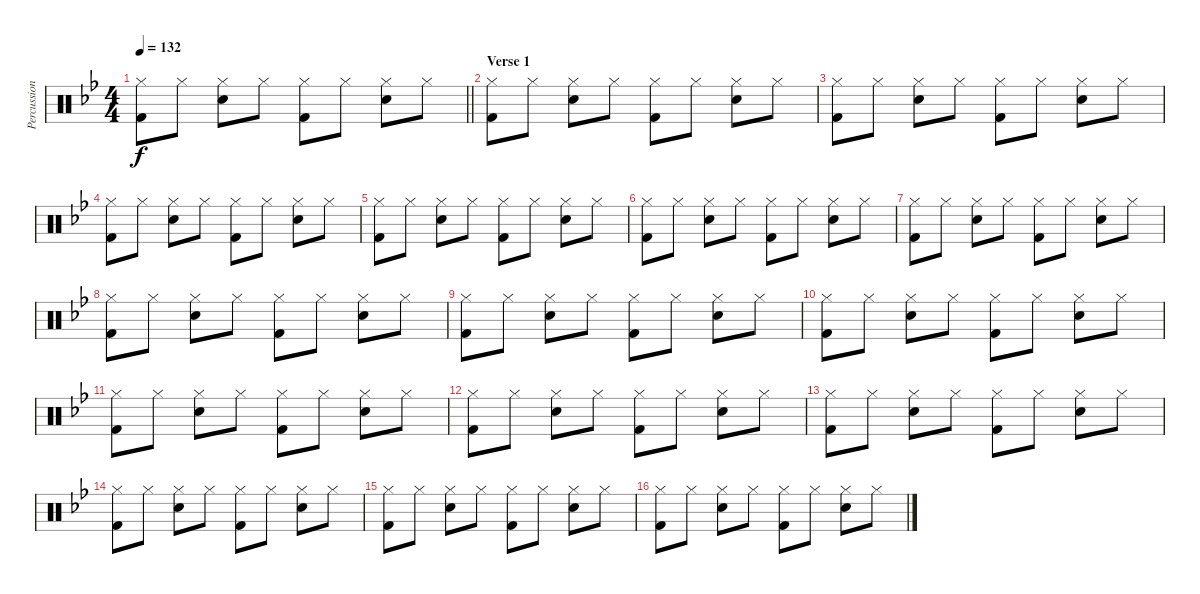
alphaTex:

\track ("Percussion" "Percussion") {instrument percussion}
\staff {score}
\articulation defaults
\ts (4 4)
\tempo 132
\clef neutral
\barLineRight lightlight
\ks bb
("Hi-Hat (closed)" "Kick (hit) 2").8{dy f} "Hi-Hat (closed)".8 ("Hi-Hat (closed)" "Snare (hit) 2").8 "Hi-Hat (closed)".8 ("Hi-Hat (closed)" "Kick (hit) 2").8 "Hi-Hat (closed)".8 ("Hi-Hat (closed)" "Snare (hit) 2").8 "Hi-Hat (closed)".8 |
\section ("" "Verse 1")
("Hi-Hat (closed)" "Kick (hit) 2").8 "Hi-Hat (closed)".8 ("Hi-Hat (closed)" "Snare (hit) 2").8 "Hi-Hat (closed)".8 ("Hi-Hat (closed)" "Kick (hit) 2").8 "Hi-Hat (closed)".8 ("Hi-Hat (closed)" "Snare (hit) 2").8 "Hi-Hat (closed)".8 |
("Hi-Hat (closed)" "Kick (hit) 2").8 "Hi-Hat (closed)".8 ("Hi-Hat (closed)" "Snare (hit) 2").8 "Hi-Hat (closed)".8 ("Hi-Hat (closed)" "Kick (hit) 2").8 "Hi-Hat (closed)".8 ("Hi-Hat (closed)" "Snare (hit) 2").8 "Hi-Hat (closed)".8 |
("Hi-Hat (closed)" "Kick (hit) 2").8 "Hi-Hat (closed)".8 ("Hi-Hat (closed)" "Snare (hit) 2").8 "Hi-Hat (closed)".8 ("Hi-Hat (closed)" "Kick (hit) 2").8 "Hi-Hat (closed)".8 ("Hi-Hat (closed)" "Snare (hit) 2").8 "Hi-Hat (closed)".8 |
("Hi-Hat (closed)" "Kick (hit) 2").8 "Hi-Hat (closed)".8 ("Hi-Hat (closed)" "Snare (hit) 2").8 "Hi-Hat (closed)".8 ("Hi-Hat (closed)" "Kick (hit) 2").8 "Hi-Hat (closed)".8 ("Hi-Hat (closed)" "Snare (hit) 2").8 "Hi-Hat (closed)".8 |
("Hi-Hat (closed)" "Kick (hit) 2").8 "Hi-Hat (closed)".8 ("Hi-Hat (closed)" "Snare (hit) 2").8 "Hi-Hat (closed)".8 ("Hi-Hat (closed)" "Kick (hit) 2").8 "Hi-Hat (closed)".8 ("Hi-Hat (closed)" "Snare (hit) 2").8 "Hi-Hat (closed)".8 |
("Hi-Hat (closed)" "Kick (hit) 2").8 "Hi-Hat (closed)".8 ("Hi-Hat (closed)" "Snare (hit) 2").8 "Hi-Hat (closed)".8 ("Hi-Hat (closed)" "Kick (hit) 2").8 "Hi-Hat (closed)".8 ("Hi-Hat (closed)" "Snare (hit) 2").8 "Hi-Hat (closed)".8 |
("Hi-Hat (closed)" "Kick (hit) 2").8 "Hi-Hat (closed)".8 ("Hi-Hat (closed)" "Snare (hit) 2").8 "Hi-Hat (closed)".8 ("Hi-Hat (closed)" "Kick (hit) 2").8 "Hi-Hat (closed)".8 ("Hi-Hat (closed)" "Snare (hit) 2").8 "Hi-Hat (closed)".8 |
("Hi-Hat (closed)" "Kick (hit) 2").8 "Hi-Hat (closed)".8 ("Hi-Hat (closed)" "Snare (hit) 2").8 "Hi-Hat (closed)".8 ("Hi-Hat (closed)" "Kick (hit) 2").8 "Hi-Hat (closed)".8 ("Hi-Hat (closed)" "Snare (hit) 2").8 "Hi-Hat (closed)".8 |
("Hi-Hat (closed)" "Kick (hit) 2").8 "Hi-Hat (closed)".8 ("Hi-Hat (closed)" "Snare (hit) 2").8 "Hi-Hat (closed)".8 ("Hi-Hat (closed)" "Kick (hit) 2").8 "Hi-Hat (closed)".8 ("Hi-Hat (closed)" "Snare (hit) 2").8 "Hi-Hat (closed)".8 |
("Hi-Hat (closed)" "Kick (hit) 2").8 "Hi-Hat (closed)".8 ("Hi-Hat (closed)" "Snare (hit) 2").8 "Hi-Hat (closed)".8 ("Hi-Hat (closed)" "Kick (hit) 2").8 "Hi-Hat (closed)".8 ("Hi-Hat (closed)" "Snare (hit) 2").8 "Hi-Hat (closed)".8 |
("Hi-Hat (closed)" "Kick (hit) 2").8 "Hi-Hat (closed)".8 ("Hi-Hat (closed)" "Snare (hit) 2").8 "Hi-Hat (closed)".8 ("Hi-Hat (closed)" "Kick (hit) 2").8 "Hi-Hat (closed)".8 ("Hi-Hat (closed)" "Snare (hit) 2").8 "Hi-Hat (closed)".8 |
("Hi-Hat (closed)" "Kick (hit) 2").8 "Hi-Hat (closed)".8 ("Hi-Hat (closed)" "Snare (hit) 2").8 "Hi-Hat (closed)".8 ("Hi-Hat (closed)" "Kick (hit) 2").8 "Hi-Hat (closed)".8 ("Hi-Hat (closed)" "Snare (hit) 2").8 "Hi-Hat (closed)".8 |
("Hi-Hat (closed)" "Kick (hit) 2").8 "Hi-Hat (closed)".8 ("Hi-Hat (closed)" "Snare (hit) 2").8 "Hi-Hat (closed)".8 ("Hi-Hat (closed)" "Kick (hit) 2").8 "Hi-Hat (closed)".8 ("Hi-Hat (closed)" "Snare (hit) 2").8 "Hi-Hat (closed)".8 |
("Hi-Hat (closed)" "Kick (hit) 2").8 "Hi-Hat (closed)".8 ("Hi-Hat (closed)" "Snare (hit) 2").8 "Hi-Hat (closed)".8 ("Hi-Hat (closed)" "Kick (hit) 2").8 "Hi-Hat (closed)".8 ("Hi-Hat (closed)" "Snare (hit) 2").8 "Hi-Hat (closed)".8 |
("Hi-Hat (closed)" "Kick (hit) 2").8 "Hi-Hat (closed)".8 ("Hi-Hat (closed)" "Snare (hit) 2").8 "Hi-Hat (closed)".8 ("Hi-Hat (closed)" "Kick (hit) 2").8 "Hi-Hat (closed)".8 ("Hi-Hat (closed)" "Snare (hit) 2").8 "Hi-Hat (closed)".8
